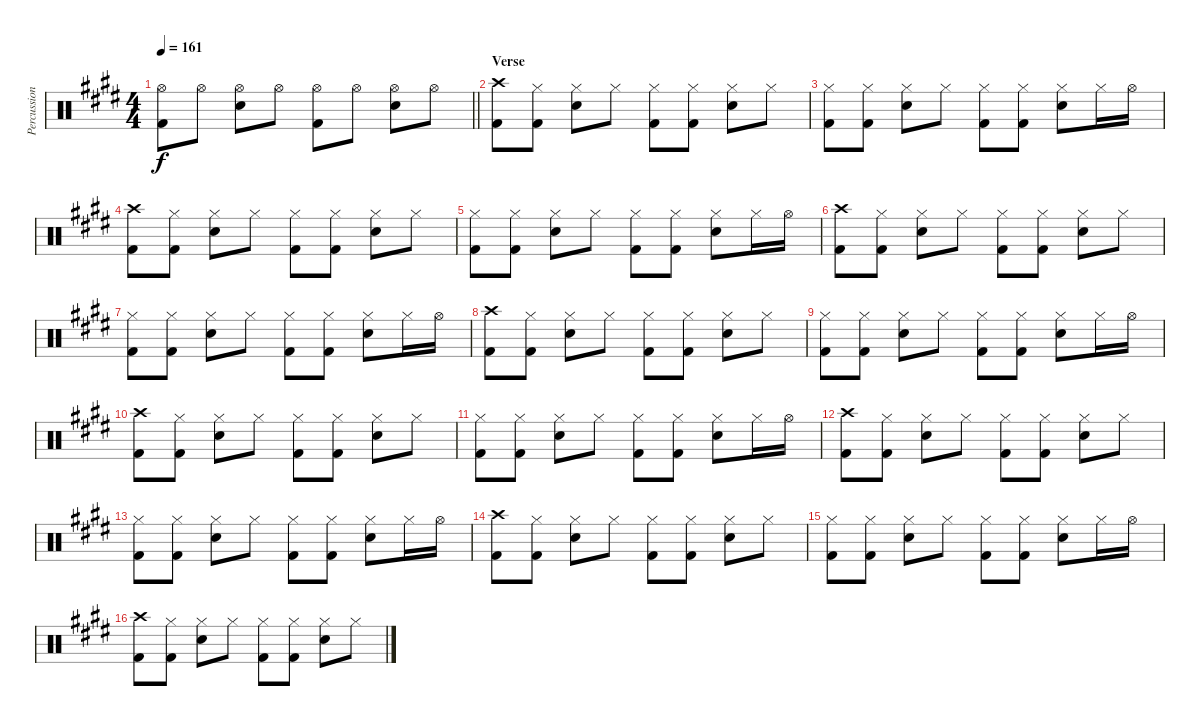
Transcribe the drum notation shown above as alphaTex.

\track ("Percussion" "Percussion") {instrument percussion}
\staff {score}
\articulation defaults
\ts (4 4)
\tempo 161
\clef neutral
\barLineRight lightlight
\ks e
("Hi-Hat (open)" "Kick (hit) 2").8{dy f} "Hi-Hat (open)".8 ("Hi-Hat (open)" "Snare (hit) 2").8 "Hi-Hat (open)".8 ("Hi-Hat (open)" "Kick (hit) 2").8 "Hi-Hat (open)".8 ("Hi-Hat (open)" "Snare (hit) 2").8 "Hi-Hat (open)".8 |
\section ("" "Verse")
("Crash high (hit)" "Kick (hit) 2").8 ("Hi-Hat (closed)" "Kick (hit) 2").8 ("Hi-Hat (closed)" "Snare (hit) 2").8 "Hi-Hat (closed)".8 ("Hi-Hat (closed)" "Kick (hit) 2").8 ("Hi-Hat (closed)" "Kick (hit) 2").8 ("Hi-Hat (closed)" "Snare (hit) 2").8 "Hi-Hat (closed)".8 |
("Hi-Hat (closed)" "Kick (hit) 2").8 ("Hi-Hat (closed)" "Kick (hit) 2").8 ("Hi-Hat (closed)" "Snare (hit) 2").8 "Hi-Hat (closed)".8 ("Hi-Hat (closed)" "Kick (hit) 2").8 ("Hi-Hat (closed)" "Kick (hit) 2").8 ("Hi-Hat (closed)" "Snare (hit) 2").8 "Hi-Hat (closed)".16 "Hi-Hat (open)".16 |
("Crash high (hit)" "Kick (hit) 2").8 ("Hi-Hat (closed)" "Kick (hit) 2").8 ("Hi-Hat (closed)" "Snare (hit) 2").8 "Hi-Hat (closed)".8 ("Hi-Hat (closed)" "Kick (hit) 2").8 ("Hi-Hat (closed)" "Kick (hit) 2").8 ("Hi-Hat (closed)" "Snare (hit) 2").8 "Hi-Hat (closed)".8 |
("Hi-Hat (closed)" "Kick (hit) 2").8 ("Hi-Hat (closed)" "Kick (hit) 2").8 ("Hi-Hat (closed)" "Snare (hit) 2").8 "Hi-Hat (closed)".8 ("Hi-Hat (closed)" "Kick (hit) 2").8 ("Hi-Hat (closed)" "Kick (hit) 2").8 ("Hi-Hat (closed)" "Snare (hit) 2").8 "Hi-Hat (closed)".16 "Hi-Hat (open)".16 |
("Crash high (hit)" "Kick (hit) 2").8 ("Hi-Hat (closed)" "Kick (hit) 2").8 ("Hi-Hat (closed)" "Snare (hit) 2").8 "Hi-Hat (closed)".8 ("Hi-Hat (closed)" "Kick (hit) 2").8 ("Hi-Hat (closed)" "Kick (hit) 2").8 ("Hi-Hat (closed)" "Snare (hit) 2").8 "Hi-Hat (closed)".8 |
("Hi-Hat (closed)" "Kick (hit) 2").8 ("Hi-Hat (closed)" "Kick (hit) 2").8 ("Hi-Hat (closed)" "Snare (hit) 2").8 "Hi-Hat (closed)".8 ("Hi-Hat (closed)" "Kick (hit) 2").8 ("Hi-Hat (closed)" "Kick (hit) 2").8 ("Hi-Hat (closed)" "Snare (hit) 2").8 "Hi-Hat (closed)".16 "Hi-Hat (open)".16 |
("Crash high (hit)" "Kick (hit) 2").8 ("Hi-Hat (closed)" "Kick (hit) 2").8 ("Hi-Hat (closed)" "Snare (hit) 2").8 "Hi-Hat (closed)".8 ("Hi-Hat (closed)" "Kick (hit) 2").8 ("Hi-Hat (closed)" "Kick (hit) 2").8 ("Hi-Hat (closed)" "Snare (hit) 2").8 "Hi-Hat (closed)".8 |
("Hi-Hat (closed)" "Kick (hit) 2").8 ("Hi-Hat (closed)" "Kick (hit) 2").8 ("Hi-Hat (closed)" "Snare (hit) 2").8 "Hi-Hat (closed)".8 ("Hi-Hat (closed)" "Kick (hit) 2").8 ("Hi-Hat (closed)" "Kick (hit) 2").8 ("Hi-Hat (closed)" "Snare (hit) 2").8 "Hi-Hat (closed)".16 "Hi-Hat (open)".16 |
("Crash high (hit)" "Kick (hit) 2").8 ("Hi-Hat (closed)" "Kick (hit) 2").8 ("Hi-Hat (closed)" "Snare (hit) 2").8 "Hi-Hat (closed)".8 ("Hi-Hat (closed)" "Kick (hit) 2").8 ("Hi-Hat (closed)" "Kick (hit) 2").8 ("Hi-Hat (closed)" "Snare (hit) 2").8 "Hi-Hat (closed)".8 |
("Hi-Hat (closed)" "Kick (hit) 2").8 ("Hi-Hat (closed)" "Kick (hit) 2").8 ("Hi-Hat (closed)" "Snare (hit) 2").8 "Hi-Hat (closed)".8 ("Hi-Hat (closed)" "Kick (hit) 2").8 ("Hi-Hat (closed)" "Kick (hit) 2").8 ("Hi-Hat (closed)" "Snare (hit) 2").8 "Hi-Hat (closed)".16 "Hi-Hat (open)".16 |
("Crash high (hit)" "Kick (hit) 2").8 ("Hi-Hat (closed)" "Kick (hit) 2").8 ("Hi-Hat (closed)" "Snare (hit) 2").8 "Hi-Hat (closed)".8 ("Hi-Hat (closed)" "Kick (hit) 2").8 ("Hi-Hat (closed)" "Kick (hit) 2").8 ("Hi-Hat (closed)" "Snare (hit) 2").8 "Hi-Hat (closed)".8 |
("Hi-Hat (closed)" "Kick (hit) 2").8 ("Hi-Hat (closed)" "Kick (hit) 2").8 ("Hi-Hat (closed)" "Snare (hit) 2").8 "Hi-Hat (closed)".8 ("Hi-Hat (closed)" "Kick (hit) 2").8 ("Hi-Hat (closed)" "Kick (hit) 2").8 ("Hi-Hat (closed)" "Snare (hit) 2").8 "Hi-Hat (closed)".16 "Hi-Hat (open)".16 |
("Crash high (hit)" "Kick (hit) 2").8 ("Hi-Hat (closed)" "Kick (hit) 2").8 ("Hi-Hat (closed)" "Snare (hit) 2").8 "Hi-Hat (closed)".8 ("Hi-Hat (closed)" "Kick (hit) 2").8 ("Hi-Hat (closed)" "Kick (hit) 2").8 ("Hi-Hat (closed)" "Snare (hit) 2").8 "Hi-Hat (closed)".8 |
("Hi-Hat (closed)" "Kick (hit) 2").8 ("Hi-Hat (closed)" "Kick (hit) 2").8 ("Hi-Hat (closed)" "Snare (hit) 2").8 "Hi-Hat (closed)".8 ("Hi-Hat (closed)" "Kick (hit) 2").8 ("Hi-Hat (closed)" "Kick (hit) 2").8 ("Hi-Hat (closed)" "Snare (hit) 2").8 "Hi-Hat (closed)".16 "Hi-Hat (open)".16 |
("Crash high (hit)" "Kick (hit) 2").8 ("Hi-Hat (closed)" "Kick (hit) 2").8 ("Hi-Hat (closed)" "Snare (hit) 2").8 "Hi-Hat (closed)".8 ("Hi-Hat (closed)" "Kick (hit) 2").8 ("Hi-Hat (closed)" "Kick (hit) 2").8 ("Hi-Hat (closed)" "Snare (hit) 2").8 "Hi-Hat (closed)".8
